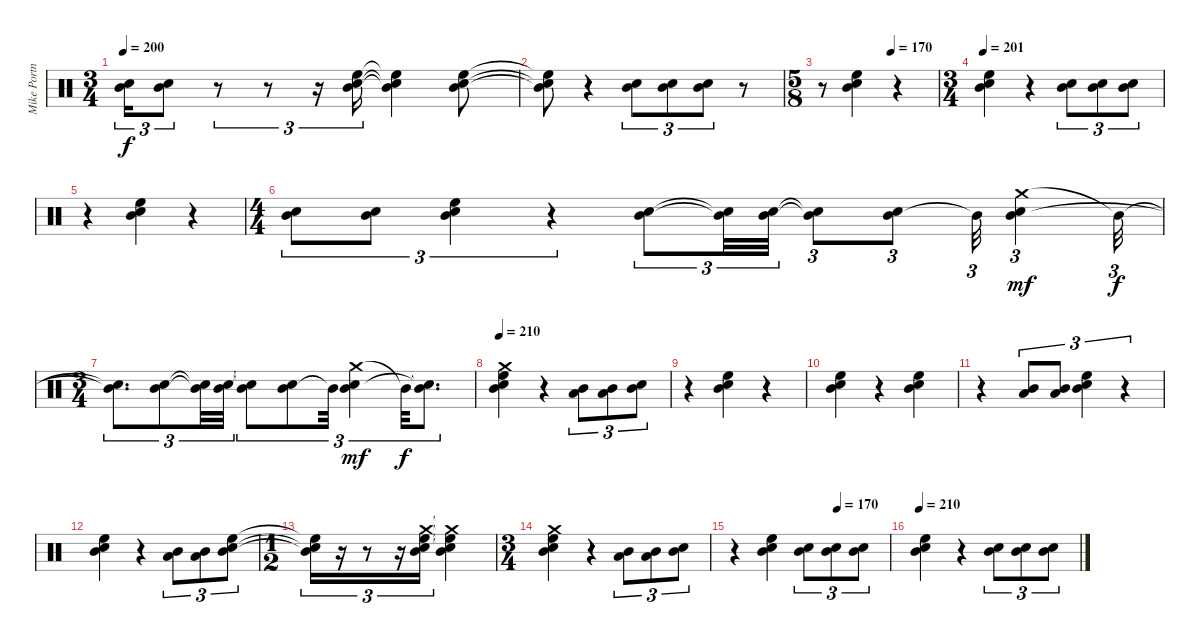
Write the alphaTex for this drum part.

\track ("Mike Portnoy" "Mike Portn") {instrument percussion}
\staff {score}
\articulation defaults
\ts (3 4)
\tempo 200
\clef neutral
\ks c
("Mid Tom (hit)"{t} "Electric Snare (hit)"{t}).16{tu (3 2) dy f} ("Mid Tom (hit)" "Electric Snare (hit)").8{tu (3 2)} r.8{tu (3 2)} r.8{tu (3 2)} r.16{tu (3 2)} ("Mid Tom (hit)" "Electric Snare (hit)" "High Floor Tom (hit)").16{tu (3 2)} ("Mid Tom (hit)"{t} "Electric Snare (hit)"{t} "High Floor Tom (hit)"{t}).4 ("Mid Tom (hit)" "Electric Snare (hit)" "High Floor Tom (hit)").8 |
("Mid Tom (hit)"{t} "Electric Snare (hit)"{t} "High Floor Tom (hit)"{t}).8 r.4 ("Mid Tom (hit)" "Electric Snare (hit)").8{tu (3 2)} ("Mid Tom (hit)" "Electric Snare (hit)").8{tu (3 2)} ("Mid Tom (hit)" "Electric Snare (hit)").8{tu (3 2)} r.8 |
\ts (5 8)
\tempo (170 0.6)
r.8 ("Mid Tom (hit)" "Electric Snare (hit)" "High Floor Tom (hit)").4 r.4 |
\ts (3 4)
\tempo 201
("Mid Tom (hit)" "Electric Snare (hit)" "High Floor Tom (hit)").4 r.4 ("Mid Tom (hit)" "Electric Snare (hit)").8{tu (3 2)} ("Mid Tom (hit)" "Electric Snare (hit)").8{tu (3 2)} ("Mid Tom (hit)" "Electric Snare (hit)").8{tu (3 2)} |
r.4 ("Mid Tom (hit)" "Electric Snare (hit)" "High Floor Tom (hit)").4 r.4 |
\ts (4 4)
("Mid Tom (hit)" "Electric Snare (hit)").8{tu (3 2)} ("Mid Tom (hit)" "Electric Snare (hit)").8{tu (3 2)} ("Mid Tom (hit)" "Electric Snare (hit)" "High Floor Tom (hit)").4{tu (3 2)} r.4{tu (3 2)} ("Mid Tom (hit)" "Electric Snare (hit)").8{tu (3 2)} ("Mid Tom (hit)"{t} "Electric Snare (hit)"{t}).32{tu (3 2)} ("Mid Tom (hit)" "Electric Snare (hit)").32{tu (3 2)} ("Mid Tom (hit)"{t} "Electric Snare (hit)"{t}).8{tu (3 2)} ("Mid Tom (hit)" "Electric Snare (hit)").8{tu (3 2)} "Mid Tom (hit)"{t}.32{tu (3 2)} ("Crash medium (hit)" "Mid Tom (hit)" "Electric Snare (hit)").4{tu (3 2) dy mf} "Mid Tom (hit)"{t}.32{tu (3 2) dy f} |
\ts (3 4)
("Mid Tom (hit)"{t} "Electric Snare (hit)"{t}).8{d tu (3 2)} ("Mid Tom (hit)" "Electric Snare (hit)").8{tu (3 2)} ("Mid Tom (hit)"{t} "Electric Snare (hit)"{t}).32{tu (3 2)} ("Mid Tom (hit)" "Electric Snare (hit)").32{tu (3 2)} ("Mid Tom (hit)"{t} "Electric Snare (hit)"{t}).8{tu (3 2)} ("Mid Tom (hit)" "Electric Snare (hit)").8{tu (3 2)} "Mid Tom (hit)"{t}.32{tu (3 2)} ("Crash medium (hit)" "Mid Tom (hit)" "Electric Snare (hit)").4{tu (3 2) dy mf} "Mid Tom (hit)"{t}.32{tu (3 2) dy f} ("Mid Tom (hit)"{t} "Electric Snare (hit)"{t}).8{d tu (3 2)} |
\tempo 210
("Crash medium (hit)" "Mid Tom (hit)" "Electric Snare (hit)" "High Floor Tom (hit)").4 r.4 ("Mid Tom (hit)" "Low Tom (hit)").8{tu (3 2)} ("Mid Tom (hit)" "Low Tom (hit)").8{tu (3 2)} ("Mid Tom (hit)" "Electric Snare (hit)").8{tu (3 2)} |
r.4 ("Mid Tom (hit)" "Electric Snare (hit)" "High Floor Tom (hit)").4 r.4 |
("Mid Tom (hit)" "Electric Snare (hit)" "High Floor Tom (hit)").4 r.4 ("Mid Tom (hit)" "Electric Snare (hit)" "High Floor Tom (hit)").4 |
r.4 ("Mid Tom (hit)" "Low Tom (hit)").8{tu (3 2)} ("Mid Tom (hit)" "Low Tom (hit)").8{tu (3 2)} ("Mid Tom (hit)" "Electric Snare (hit)" "High Floor Tom (hit)").4{tu (3 2)} r.4{tu (3 2)} |
("Mid Tom (hit)" "Electric Snare (hit)" "High Floor Tom (hit)").4 r.4 ("Mid Tom (hit)" "Low Tom (hit)").8{tu (3 2)} ("Mid Tom (hit)" "Low Tom (hit)").8{tu (3 2)} ("Mid Tom (hit)" "Electric Snare (hit)" "High Floor Tom (hit)").8{tu (3 2)} |
\ts (1 2)
("Mid Tom (hit)"{t} "Electric Snare (hit)"{t} "High Floor Tom (hit)"{t}).16{tu (3 2)} r.16{tu (3 2)} r.8{tu (3 2)} r.16{tu (3 2)} ("Crash medium (hit)" "Mid Tom (hit)" "Electric Snare (hit)" "High Floor Tom (hit)").16{tu (3 2)} ("Crash medium (hit)"{t} "Mid Tom (hit)"{t} "Electric Snare (hit)"{t} "High Floor Tom (hit)"{t}).4 |
\ts (3 4)
("Crash medium (hit)" "Mid Tom (hit)" "Electric Snare (hit)" "High Floor Tom (hit)").4 r.4 ("Mid Tom (hit)" "Low Tom (hit)").8{tu (3 2)} ("Mid Tom (hit)" "Low Tom (hit)").8{tu (3 2)} ("Mid Tom (hit)" "Electric Snare (hit)").8{tu (3 2)} |
\tempo (170 0.6666666666666666)
r.4 ("Mid Tom (hit)" "Electric Snare (hit)" "High Floor Tom (hit)").4 ("Electric Snare (hit)" "Mid Tom (hit)").8{tu (3 2) bd 120} ("Electric Snare (hit)" "Mid Tom (hit)").8{tu (3 2) bu 120} ("Electric Snare (hit)" "Mid Tom (hit)").8{tu (3 2) bd 120} |
\tempo 210
("Mid Tom (hit)" "Electric Snare (hit)" "High Floor Tom (hit)").4 r.4 ("Mid Tom (hit)" "Electric Snare (hit)").8{tu (3 2)} ("Mid Tom (hit)" "Electric Snare (hit)").8{tu (3 2)} ("Mid Tom (hit)" "Electric Snare (hit)").8{tu (3 2)}
